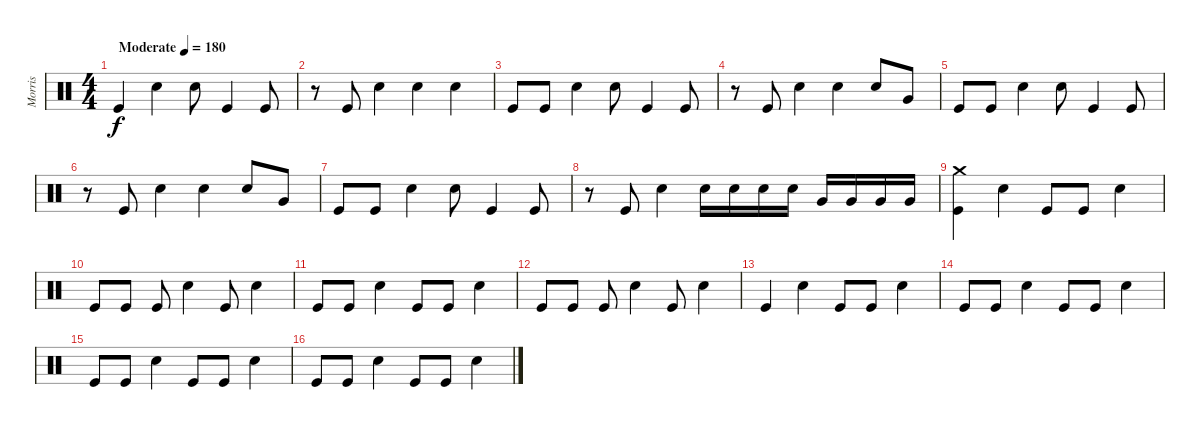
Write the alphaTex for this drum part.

\track ("Morris" "Morris") {instrument percussion}
\staff {score}
\articulation defaults
\ts (4 4)
\tempo (180 "Moderate")
\clef neutral
\ks c "Kick (hit)".4{dy f} "Electric Snare (hit)".4 "Electric Snare (hit)".8 "Kick (hit)".4 "Kick (hit)".8
|
r.8 "Kick (hit)".8 "Electric Snare (hit)".4 "Electric Snare (hit)".4 "Electric Snare (hit)".4 |
"Kick (hit)".8 "Kick (hit)".8 "Electric Snare (hit)".4 "Electric Snare (hit)".8 "Kick (hit)".4 "Kick (hit)".8 |
r.8 "Kick (hit)".8 "Electric Snare (hit)".4 "Electric Snare (hit)".4 "Electric Snare (hit)".8 "Very Low Tom (hit)".8 |
"Kick (hit)".8 "Kick (hit)".8 "Electric Snare (hit)".4 "Electric Snare (hit)".8 "Kick (hit)".4 "Kick (hit)".8 |
r.8 "Kick (hit)".8 "Electric Snare (hit)".4 "Electric Snare (hit)".4 "Electric Snare (hit)".8 "Very Low Tom (hit)".8 |
"Kick (hit)".8 "Kick (hit)".8 "Electric Snare (hit)".4 "Electric Snare (hit)".8 "Kick (hit)".4 "Kick (hit)".8 |
r.8 "Kick (hit)".8 "Electric Snare (hit)".4 "Electric Snare (hit)".16 "Electric Snare (hit)".16 "Electric Snare (hit)".16 "Electric Snare (hit)".16 "Very Low Tom (hit)".16 "Very Low Tom (hit)".16 "Very Low Tom (hit)".16 "Very Low Tom (hit)".16 |
("Crash medium (hit)" "Kick (hit)").4 "Electric Snare (hit)".4 "Kick (hit)".8 "Kick (hit)".8 "Electric Snare (hit)".4 |
"Kick (hit)".8 "Kick (hit)".8 "Kick (hit)".8 "Electric Snare (hit)".4 "Kick (hit)".8 "Electric Snare (hit)".4 |
"Kick (hit)".8 "Kick (hit)".8 "Electric Snare (hit)".4 "Kick (hit)".8 "Kick (hit)".8 "Electric Snare (hit)".4 |
"Kick (hit)".8 "Kick (hit)".8 "Kick (hit)".8 "Electric Snare (hit)".4 "Kick (hit)".8 "Electric Snare (hit)".4 |
"Kick (hit)".4 "Electric Snare (hit)".4 "Kick (hit)".8 "Kick (hit)".8 "Electric Snare (hit)".4 |
"Kick (hit)".8 "Kick (hit)".8 "Electric Snare (hit)".4 "Kick (hit)".8 "Kick (hit)".8 "Electric Snare (hit)".4 |
"Kick (hit)".8 "Kick (hit)".8 "Electric Snare (hit)".4 "Kick (hit)".8 "Kick (hit)".8 "Electric Snare (hit)".4 |
"Kick (hit)".8 "Kick (hit)".8 "Electric Snare (hit)".4 "Kick (hit)".8 "Kick (hit)".8 "Electric Snare (hit)".4
